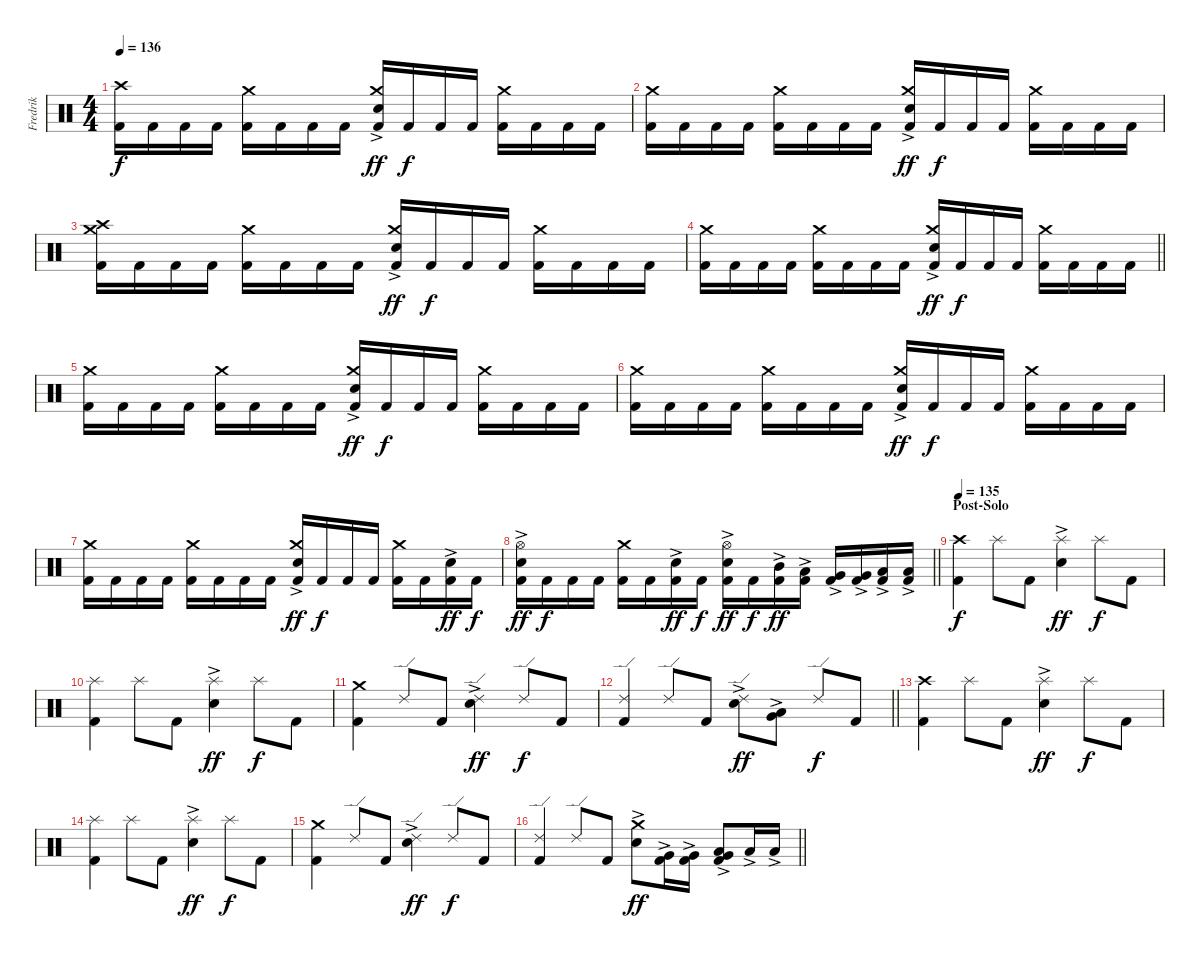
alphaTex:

\track ("Fredrik" "Fredrik") {instrument percussion}
\staff {score}
\articulation defaults
\ts (4 4)
\section ("" "")
\tempo 136
\clef neutral
\ks c
("Kick (hit) 2" "Crash high (hit)").16{dy f} "Kick (hit) 2".16 "Kick (hit) 2".16 "Kick (hit) 2".16 ("Kick (hit) 2" "Crash medium (hit)").16 "Kick (hit) 2".16 "Kick (hit) 2".16 "Kick (hit) 2".16 ("Kick (hit) 2" "Snare (hit) 2"{ac} "Crash medium (hit)").16{dy ff} "Kick (hit) 2".16{dy f} "Kick (hit) 2".16 "Kick (hit) 2".16 ("Kick (hit) 2" "Crash medium (hit)").16 "Kick (hit) 2".16 "Kick (hit) 2".16 "Kick (hit) 2".16 |
("Kick (hit) 2" "Crash medium (hit)").16 "Kick (hit) 2".16 "Kick (hit) 2".16 "Kick (hit) 2".16 ("Kick (hit) 2" "Crash medium (hit)").16 "Kick (hit) 2".16 "Kick (hit) 2".16 "Kick (hit) 2".16 ("Kick (hit) 2" "Snare (hit) 2"{ac} "Crash medium (hit)").16{dy ff} "Kick (hit) 2".16{dy f} "Kick (hit) 2".16 "Kick (hit) 2".16 ("Kick (hit) 2" "Crash medium (hit)").16 "Kick (hit) 2".16 "Kick (hit) 2".16 "Kick (hit) 2".16 |
("Kick (hit) 2" "Crash medium (hit)" "Crash high (hit)").16 "Kick (hit) 2".16 "Kick (hit) 2".16 "Kick (hit) 2".16 ("Kick (hit) 2" "Crash medium (hit)").16 "Kick (hit) 2".16 "Kick (hit) 2".16 "Kick (hit) 2".16 ("Kick (hit) 2" "Snare (hit) 2"{ac} "Crash medium (hit)").16{dy ff} "Kick (hit) 2".16{dy f} "Kick (hit) 2".16 "Kick (hit) 2".16 ("Kick (hit) 2" "Crash medium (hit)").16 "Kick (hit) 2".16 "Kick (hit) 2".16 "Kick (hit) 2".16 |
\barLineRight lightlight
("Kick (hit) 2" "Crash medium (hit)").16 "Kick (hit) 2".16 "Kick (hit) 2".16 "Kick (hit) 2".16 ("Kick (hit) 2" "Crash medium (hit)").16 "Kick (hit) 2".16 "Kick (hit) 2".16 "Kick (hit) 2".16 ("Kick (hit) 2" "Snare (hit) 2"{ac} "Crash medium (hit)").16{dy ff} "Kick (hit) 2".16{dy f} "Kick (hit) 2".16 "Kick (hit) 2".16 ("Kick (hit) 2" "Crash medium (hit)").16 "Kick (hit) 2".16 "Kick (hit) 2".16 "Kick (hit) 2".16 |
\section ("" "")
("Kick (hit) 2" "Crash medium (hit)").16 "Kick (hit) 2".16 "Kick (hit) 2".16 "Kick (hit) 2".16 ("Kick (hit) 2" "Crash medium (hit)").16 "Kick (hit) 2".16 "Kick (hit) 2".16 "Kick (hit) 2".16 ("Kick (hit) 2" "Snare (hit) 2"{ac} "Crash medium (hit)").16{dy ff} "Kick (hit) 2".16{dy f} "Kick (hit) 2".16 "Kick (hit) 2".16 ("Kick (hit) 2" "Crash medium (hit)").16 "Kick (hit) 2".16 "Kick (hit) 2".16 "Kick (hit) 2".16 |
("Kick (hit) 2" "Crash medium (hit)").16 "Kick (hit) 2".16 "Kick (hit) 2".16 "Kick (hit) 2".16 ("Kick (hit) 2" "Crash medium (hit)").16 "Kick (hit) 2".16 "Kick (hit) 2".16 "Kick (hit) 2".16 ("Kick (hit) 2" "Snare (hit) 2"{ac} "Crash medium (hit)").16{dy ff} "Kick (hit) 2".16{dy f} "Kick (hit) 2".16 "Kick (hit) 2".16 ("Kick (hit) 2" "Crash medium (hit)").16 "Kick (hit) 2".16 "Kick (hit) 2".16 "Kick (hit) 2".16 |
("Kick (hit) 2" "Crash medium (hit)").16 "Kick (hit) 2".16 "Kick (hit) 2".16 "Kick (hit) 2".16 ("Kick (hit) 2" "Crash medium (hit)").16 "Kick (hit) 2".16 "Kick (hit) 2".16 "Kick (hit) 2".16 ("Kick (hit) 2" "Snare (hit) 2"{ac} "Crash medium (hit)").16{dy ff} "Kick (hit) 2".16{dy f} "Kick (hit) 2".16 "Kick (hit) 2".16 ("Kick (hit) 2" "Crash medium (hit)").16 "Kick (hit) 2".16 ("Kick (hit) 2" "Snare (hit) 2"{ac}).16{dy ff} "Kick (hit) 2".16{dy f} |
\barLineRight lightlight
("Kick (hit) 2" "Snare (hit) 2"{ac} "Hi-Hat (open)").16{dy ff} "Kick (hit) 2".16{dy f} "Kick (hit) 2".16 "Kick (hit) 2".16 ("Kick (hit) 2" "Crash medium (hit)").16 "Kick (hit) 2".16 ("Kick (hit) 2" "Snare (hit) 2"{ac}).16{dy ff} "Kick (hit) 2".16{dy f} ("Kick (hit) 2" "Snare (hit) 2"{ac} "Hi-Hat (open)").16{dy ff} "Kick (hit) 2".16{dy f} ("Kick (hit) 2" "Mid Tom (hit)"{ac}).16{dy ff} ("Kick (hit) 2" "Low Tom (hit)"{ac}).16 ("Kick (hit) 2" "Very Low Tom (hit)"{ac}).16 ("Kick (hit) 2" "Very Low Tom (hit)"{ac}).16 ("Kick (hit) 2" "Low Floor Tom (hit)"{ac}).16 ("Kick (hit) 2" "Low Floor Tom (hit)"{ac}).16 |
\section ("" "Post-Solo")
\tempo 135
("Kick (hit) 2" "Crash high (hit)").4{dy f} "Splash (hit)".8 "Kick (hit) 2".8 ("Snare (hit) 2"{ac} "Splash (hit)").4{dy ff} "Splash (hit)".8{dy f} "Kick (hit) 2".8 |
("Kick (hit) 2" "Splash (hit)").4 "Splash (hit)".8 "Kick (hit) 2".8 ("Snare (hit) 2"{ac} "Splash (hit)").4{dy ff} "Splash (hit)".8{dy f} "Kick (hit) 2".8 |
("Kick (hit) 2" "Crash medium (hit)").4 "Ride (edge) 2".8 "Kick (hit) 2".8 ("Snare (hit) 2"{ac} "Ride (edge) 2").4{dy ff} "Ride (edge) 2".8{dy f} "Kick (hit) 2".8 |
\barLineRight lightlight
("Kick (hit) 2" "Ride (edge) 2").4 "Ride (edge) 2".8 "Kick (hit) 2".8 ("Snare (hit) 2"{ac} "Ride (edge) 2").8{dy ff} ("Very Low Tom (hit)"{ac} "Low Floor Tom (hit)"{ac}).8 "Ride (edge) 2".8{dy f} "Kick (hit) 2".8 |
\section ("" "")
("Kick (hit) 2" "Crash high (hit)").4 "Splash (hit)".8 "Kick (hit) 2".8 ("Snare (hit) 2"{ac} "Splash (hit)").4{dy ff} "Splash (hit)".8{dy f} "Kick (hit) 2".8 |
("Kick (hit) 2" "Splash (hit)").4 "Splash (hit)".8 "Kick (hit) 2".8 ("Snare (hit) 2"{ac} "Splash (hit)").4{dy ff} "Splash (hit)".8{dy f} "Kick (hit) 2".8 |
("Kick (hit) 2" "Crash medium (hit)").4 "Ride (edge) 2".8 "Kick (hit) 2".8 ("Snare (hit) 2"{ac} "Ride (edge) 2").4{dy ff} "Ride (edge) 2".8{dy f} "Kick (hit) 2".8 |
\barLineRight lightlight
("Kick (hit) 2" "Ride (edge) 2").4 "Ride (edge) 2".8 "Kick (hit) 2".8 ("Snare (hit) 2"{ac} "Crash medium (hit)").8{dy ff} ("Kick (hit) 2" "Very Low Tom (hit)"{ac}).16 ("Kick (hit) 2" "Very Low Tom (hit)"{ac}).16 ("Kick (hit) 2" "Very Low Tom (hit)" "Low Floor Tom (hit)"{ac}).8 "Low Floor Tom (hit)"{ac}.16 "Low Floor Tom (hit)"{ac}.16
